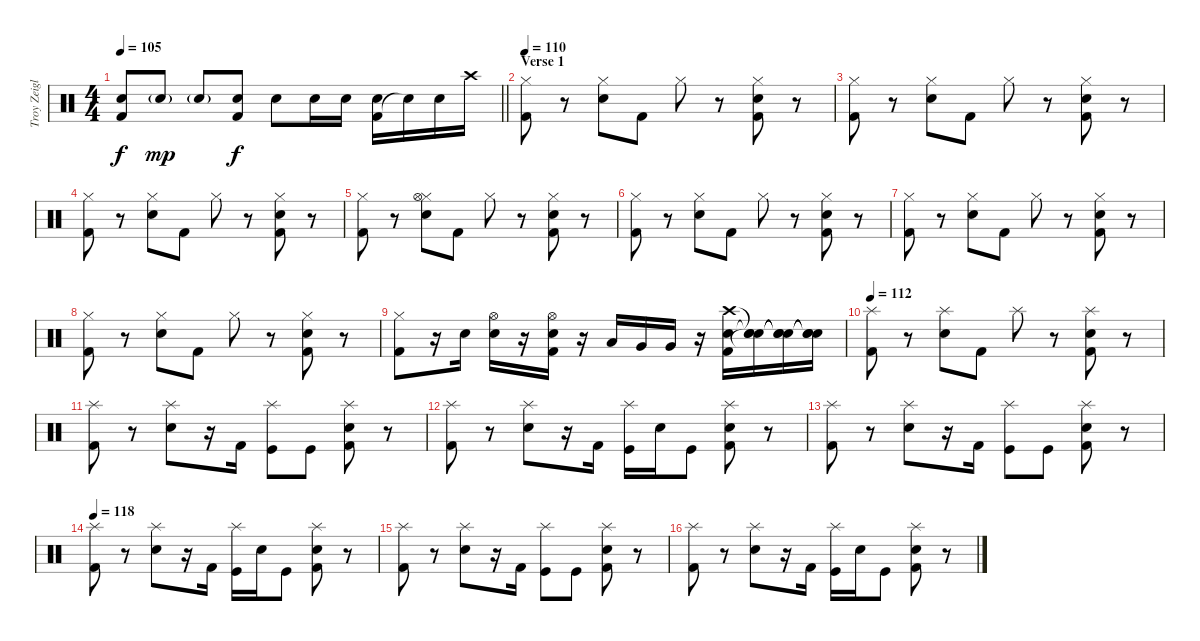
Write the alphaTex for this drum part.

\track ("Troy Zeigler (Drums)" "Troy Zeigl") {instrument percussion}
\staff {score}
\articulation defaults
\ts (4 4)
\tempo 105
\clef neutral
\barLineRight lightlight
\ks c
("Kick (hit) 2" "Electric Snare (hit)").8{dy f} "Electric Snare (hit)"{g}.8{dy mp} "Electric Snare (hit)"{g}.8 ("Kick (hit) 2" "Electric Snare (hit)").8{dy f} "Electric Snare (hit)".8 "Snare (hit) 2".16 "Snare (hit) 2".16 ("Kick (hit) 2" "Electric Snare (hit)").16 "Snare (hit) 2"{t}.16 "Snare (hit) 2".16 "Crash high (hit)".16 |
\section ("" "Verse 1")
\tempo 110
("Hi-Hat (closed)" "Kick (hit) 2").8 r.8 ("Hi-Hat (closed)" "Snare (hit) 2").8 "Kick (hit) 2".8 "Hi-Hat (closed)".8 r.8 ("Hi-Hat (closed)" "Kick (hit) 2" "Snare (hit) 2").8 r.8 |
("Hi-Hat (closed)" "Kick (hit) 2").8 r.8 ("Hi-Hat (closed)" "Snare (hit) 2").8 "Kick (hit) 2".8 "Hi-Hat (closed)".8 r.8 ("Hi-Hat (closed)" "Kick (hit) 2" "Snare (hit) 2").8 r.8 |
("Hi-Hat (closed)" "Kick (hit) 2").8 r.8 ("Hi-Hat (closed)" "Snare (hit) 2").8 "Kick (hit) 2".8 "Hi-Hat (closed)".8 r.8 ("Hi-Hat (closed)" "Kick (hit) 2" "Snare (hit) 2").8 r.8 |
("Hi-Hat (closed)" "Kick (hit) 2").8 r.8 ("Hi-Hat (closed)" "Snare (hit) 2" "Hi-Hat (open)").8 "Kick (hit) 2".8 "Hi-Hat (closed)".8 r.8 ("Hi-Hat (closed)" "Kick (hit) 2" "Snare (hit) 2").8 r.8 |
("Hi-Hat (closed)" "Kick (hit) 2").8 r.8 ("Hi-Hat (closed)" "Snare (hit) 2").8 "Kick (hit) 2".8 "Hi-Hat (closed)".8 r.8 ("Hi-Hat (closed)" "Kick (hit) 2" "Snare (hit) 2").8 r.8 |
("Hi-Hat (closed)" "Kick (hit) 2").8 r.8 ("Hi-Hat (closed)" "Snare (hit) 2").8 "Kick (hit) 2".8 "Hi-Hat (closed)".8 r.8 ("Hi-Hat (closed)" "Kick (hit) 2" "Snare (hit) 2").8 r.8 |
("Hi-Hat (closed)" "Kick (hit) 2").8 r.8 ("Hi-Hat (closed)" "Snare (hit) 2").8 "Kick (hit) 2".8 "Hi-Hat (closed)".8 r.8 ("Hi-Hat (closed)" "Kick (hit) 2" "Snare (hit) 2").8 r.8 |
("Hi-Hat (closed)" "Kick (hit) 2").8 r.16 "Snare (hit) 2".16 ("Hi-Hat (open)" "Snare (hit) 2").16 r.16 ("Hi-Hat (open)" "Kick (hit) 2" "Snare (hit) 2").16 r.16 "Low Tom (hit)".16 "Very Low Tom (hit)".16 "Very Low Tom (hit)".16 r.16 ("Kick (hit) 2" "Snare (hit) 2" "Crash high (hit)").16 ("Snare (hit)"{t} "Snare (hit)"{t} "Snare (hit)"{t}).16 ("Snare (hit)"{t} "Snare (hit)"{t} "Snare (hit)"{t}).16 ("Snare (hit)"{t} "Snare (hit)"{t} "Snare (hit)"{t}).16 |
\tempo 112
("Splash (hit)" "Kick (hit) 2").8 r.8 ("Splash (hit)" "Snare (hit) 2").8 "Kick (hit) 2".8 "Splash (hit)".8 r.8 ("Splash (hit)" "Kick (hit) 2" "Snare (hit) 2").8 r.8 |
("Splash (hit)" "Kick (hit) 2").8 r.8 ("Splash (hit)" "Snare (hit) 2").8 r.16 "Kick (hit) 2".16 ("Splash (hit)" "Kick (hit)").8 "Kick (hit)".8 ("Splash (hit)" "Kick (hit) 2" "Snare (hit) 2").8 r.8 |
("Splash (hit)" "Kick (hit) 2").8 r.8 ("Splash (hit)" "Snare (hit) 2").8 r.16 "Kick (hit) 2".16 ("Splash (hit)" "Kick (hit)").16 "Snare (hit) 2".16 "Kick (hit)".8 ("Splash (hit)" "Kick (hit) 2" "Snare (hit) 2").8 r.8 |
("Splash (hit)" "Kick (hit) 2").8 r.8 ("Splash (hit)" "Snare (hit) 2").8 r.16 "Kick (hit) 2".16 ("Splash (hit)" "Kick (hit)").8 "Kick (hit)".8 ("Splash (hit)" "Kick (hit) 2" "Snare (hit) 2").8 r.8 |
\tempo 118
("Splash (hit)" "Kick (hit) 2").8 r.8 ("Splash (hit)" "Snare (hit) 2").8 r.16 "Kick (hit) 2".16 ("Splash (hit)" "Kick (hit)").16 "Snare (hit) 2".16 "Kick (hit)".8 ("Splash (hit)" "Kick (hit) 2" "Snare (hit) 2").8 r.8 |
("Splash (hit)" "Kick (hit) 2").8 r.8 ("Splash (hit)" "Snare (hit) 2").8 r.16 "Kick (hit) 2".16 ("Splash (hit)" "Kick (hit)").8 "Kick (hit)".8 ("Splash (hit)" "Kick (hit) 2" "Snare (hit) 2").8 r.8 |
("Splash (hit)" "Kick (hit) 2").8 r.8 ("Splash (hit)" "Snare (hit) 2").8 r.16 "Kick (hit) 2".16 ("Splash (hit)" "Kick (hit)").16 "Snare (hit) 2".16 "Kick (hit)".8 ("Splash (hit)" "Kick (hit) 2" "Snare (hit) 2").8 r.8
